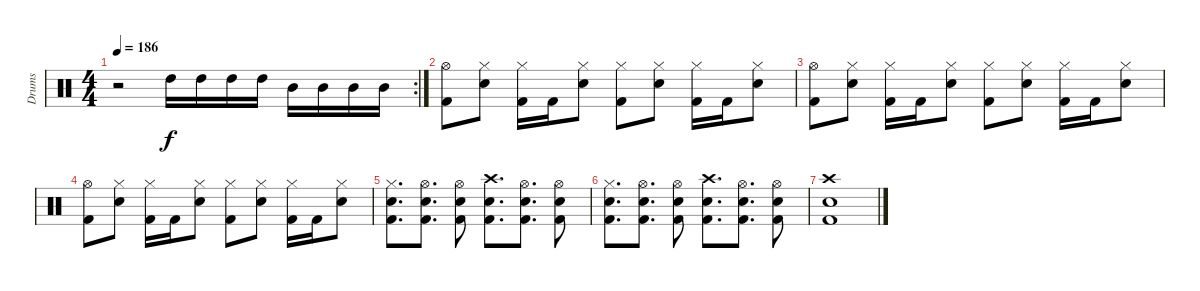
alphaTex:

\track ("Drums" "Drums") {instrument percussion}
\staff {score}
\articulation defaults
\rc 2
\ts (4 4)
\tempo 186
\clef neutral
\ks c
r.2{dy f} "High Tom (hit)".16 "High Tom (hit)".16 "High Tom (hit)".16 "High Tom (hit)".16 "Mid Tom (hit)".16 "Mid Tom (hit)".16 "Mid Tom (hit)".16 "Mid Tom (hit)".16 |
("Hi-Hat (open)" "Kick (hit) 2").8 ("Hi-Hat (closed)" "Electric Snare (hit)").8 ("Hi-Hat (closed)" "Kick (hit) 2").16 "Kick (hit) 2".16 ("Hi-Hat (closed)" "Electric Snare (hit)").8 ("Hi-Hat (closed)" "Kick (hit) 2").8 ("Hi-Hat (closed)" "Electric Snare (hit)").8 ("Hi-Hat (closed)" "Kick (hit) 2").16 "Kick (hit) 2".16 ("Hi-Hat (closed)" "Electric Snare (hit)").8 |
("Hi-Hat (open)" "Kick (hit) 2").8 ("Hi-Hat (closed)" "Electric Snare (hit)").8 ("Hi-Hat (closed)" "Kick (hit) 2").16 "Kick (hit) 2".16 ("Hi-Hat (closed)" "Electric Snare (hit)").8 ("Hi-Hat (closed)" "Kick (hit) 2").8 ("Hi-Hat (closed)" "Electric Snare (hit)").8 ("Hi-Hat (closed)" "Kick (hit) 2").16 "Kick (hit) 2".16 ("Hi-Hat (closed)" "Electric Snare (hit)").8 |
("Hi-Hat (open)" "Kick (hit) 2").8 ("Hi-Hat (closed)" "Electric Snare (hit)").8 ("Hi-Hat (closed)" "Kick (hit) 2").16 "Kick (hit) 2".16 ("Hi-Hat (closed)" "Electric Snare (hit)").8 ("Hi-Hat (closed)" "Kick (hit) 2").8 ("Hi-Hat (closed)" "Electric Snare (hit)").8 ("Hi-Hat (closed)" "Kick (hit) 2").16 "Kick (hit) 2".16 ("Hi-Hat (closed)" "Electric Snare (hit)").8 |
("Hi-Hat (closed)" "Electric Snare (hit)" "Kick (hit) 2").8{d} ("Hi-Hat (open)" "Electric Snare (hit)" "Kick (hit) 2").8{d} ("Hi-Hat (open)" "Electric Snare (hit)" "Kick (hit) 2").8 ("Crash high (hit)" "Electric Snare (hit)" "Kick (hit) 2").8{d} ("Hi-Hat (open)" "Electric Snare (hit)" "Kick (hit) 2").8{d} ("Hi-Hat (open)" "Electric Snare (hit)" "Kick (hit) 2").8 |
("Hi-Hat (closed)" "Electric Snare (hit)" "Kick (hit) 2").8{d} ("Hi-Hat (open)" "Electric Snare (hit)" "Kick (hit) 2").8{d} ("Hi-Hat (open)" "Electric Snare (hit)" "Kick (hit) 2").8 ("Crash high (hit)" "Electric Snare (hit)" "Kick (hit) 2").8{d} ("Hi-Hat (open)" "Electric Snare (hit)" "Kick (hit) 2").8{d} ("Hi-Hat (open)" "Electric Snare (hit)" "Kick (hit) 2").8 |
("Crash high (hit)" "Electric Snare (hit)" "Kick (hit) 2").1
